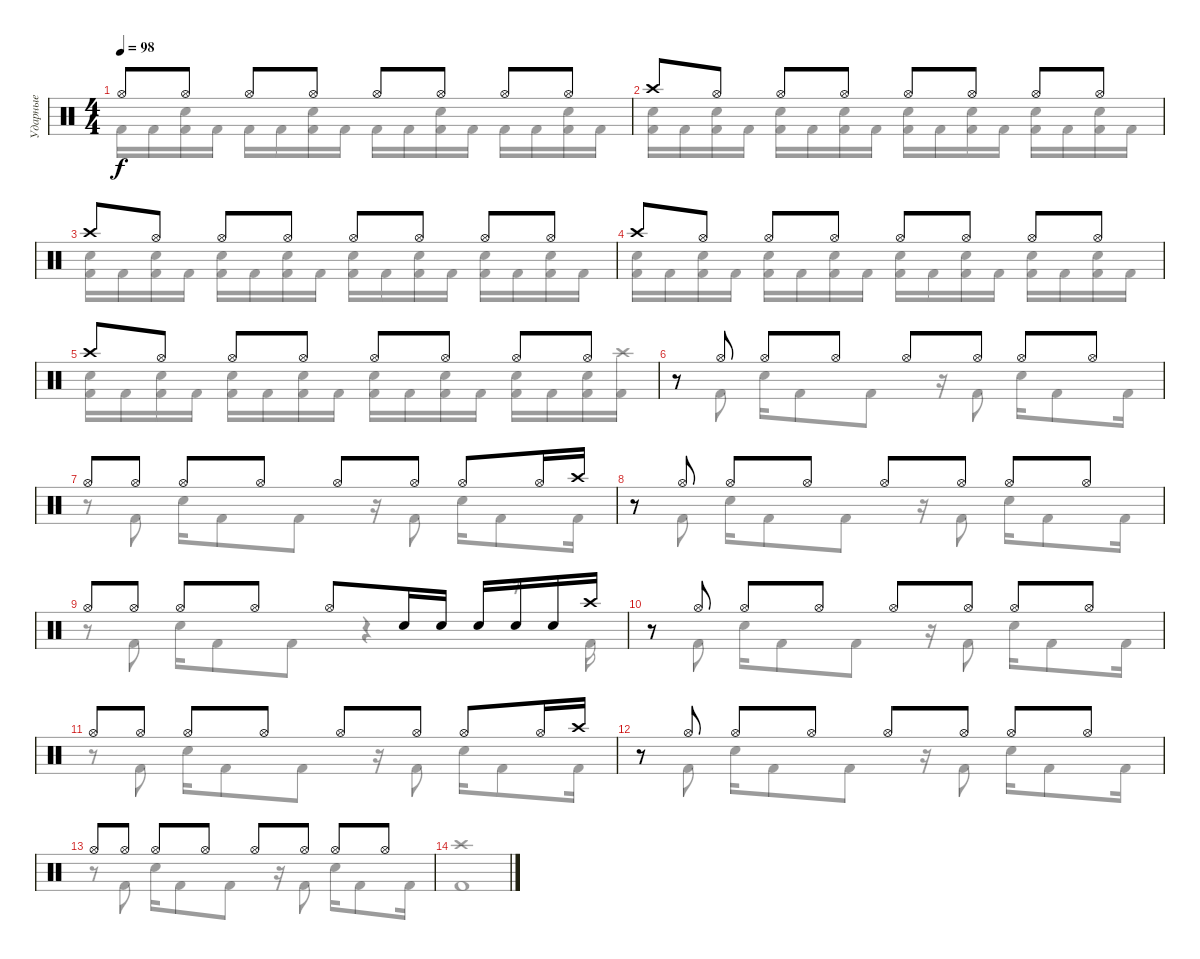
\track ("Ударные" "Ударные") {instrument percussion}
\staff {score}
\articulation defaults
\voice
\ts (4 4)
\tempo 98
\clef neutral
\ks c "Hi-Hat (open)".8{dy f} "Hi-Hat (open)".8 "Hi-Hat (open)".8 "Hi-Hat (open)".8 "Hi-Hat (open)".8 "Hi-Hat (open)".8 "Hi-Hat (open)".8 "Hi-Hat (open)".8
|
"Crash high (hit)".8 "Hi-Hat (open)".8 "Hi-Hat (open)".8 "Hi-Hat (open)".8 "Hi-Hat (open)".8 "Hi-Hat (open)".8 "Hi-Hat (open)".8 "Hi-Hat (open)".8 |
"Crash high (hit)".8 "Hi-Hat (open)".8 "Hi-Hat (open)".8 "Hi-Hat (open)".8 "Hi-Hat (open)".8 "Hi-Hat (open)".8 "Hi-Hat (open)".8 "Hi-Hat (open)".8 |
"Crash high (hit)".8 "Hi-Hat (open)".8 "Hi-Hat (open)".8 "Hi-Hat (open)".8 "Hi-Hat (open)".8 "Hi-Hat (open)".8 "Hi-Hat (open)".8 "Hi-Hat (open)".8 |
"Crash high (hit)".8 "Hi-Hat (open)".8 "Hi-Hat (open)".8 "Hi-Hat (open)".8 "Hi-Hat (open)".8 "Hi-Hat (open)".8 "Hi-Hat (open)".8 "Hi-Hat (open)".8 |
r.8 "Hi-Hat (open)".8 "Hi-Hat (open)".8 "Hi-Hat (open)".8 "Hi-Hat (open)".8 "Hi-Hat (open)".8 "Hi-Hat (open)".8 "Hi-Hat (open)".8 |
"Hi-Hat (open)".8 "Hi-Hat (open)".8 "Hi-Hat (open)".8 "Hi-Hat (open)".8 "Hi-Hat (open)".8 "Hi-Hat (open)".8 "Hi-Hat (open)".8 "Hi-Hat (open)".16 "Crash high (hit)".16 |
r.8 "Hi-Hat (open)".8 "Hi-Hat (open)".8 "Hi-Hat (open)".8 "Hi-Hat (open)".8 "Hi-Hat (open)".8 "Hi-Hat (open)".8 "Hi-Hat (open)".8 |
"Hi-Hat (open)".8 "Hi-Hat (open)".8 "Hi-Hat (open)".8 "Hi-Hat (open)".8 "Hi-Hat (open)".8 "Snare (hit) 2".16 "Snare (hit) 2".16 "Snare (hit) 2".16 "Snare (hit) 2".16 "Snare (hit) 2".16 "Crash high (hit)".16 |
r.8 "Hi-Hat (open)".8 "Hi-Hat (open)".8 "Hi-Hat (open)".8 "Hi-Hat (open)".8 "Hi-Hat (open)".8 "Hi-Hat (open)".8 "Hi-Hat (open)".8 |
"Hi-Hat (open)".8 "Hi-Hat (open)".8 "Hi-Hat (open)".8 "Hi-Hat (open)".8 "Hi-Hat (open)".8 "Hi-Hat (open)".8 "Hi-Hat (open)".8 "Hi-Hat (open)".16 "Crash high (hit)".16 |
r.8 "Hi-Hat (open)".8 "Hi-Hat (open)".8 "Hi-Hat (open)".8 "Hi-Hat (open)".8 "Hi-Hat (open)".8 "Hi-Hat (open)".8 "Hi-Hat (open)".8 |
"Hi-Hat (open)".8 "Hi-Hat (open)".8 "Hi-Hat (open)".8 "Hi-Hat (open)".8 "Hi-Hat (open)".8 "Hi-Hat (open)".8 "Hi-Hat (open)".8 "Hi-Hat (open)".8 |
\voice
\clef neutral
\ottava regular
\simile none
\ks c "Kick (hit) 2".16{dy f} "Kick (hit) 2".16
("Snare (hit) 2" "Kick (hit) 2").16 "Kick (hit) 2".16 "Kick (hit) 2".16 "Kick (hit) 2".16 ("Snare (hit) 2" "Kick (hit) 2").16 "Kick (hit) 2".16 "Kick (hit) 2".16 "Kick (hit) 2".16 ("Snare (hit) 2" "Kick (hit) 2").16 "Kick (hit) 2".16 "Kick (hit) 2".16 "Kick (hit) 2".16 ("Snare (hit) 2" "Kick (hit) 2").16 "Kick (hit) 2".16 |
("Snare (hit) 2" "Kick (hit) 2").16 "Kick (hit) 2".16 ("Snare (hit) 2" "Kick (hit) 2").16 "Kick (hit) 2".16 ("Snare (hit) 2" "Kick (hit) 2").16 "Kick (hit) 2".16 ("Snare (hit) 2" "Kick (hit) 2").16 "Kick (hit) 2".16 ("Snare (hit) 2" "Kick (hit) 2").16 "Kick (hit) 2".16 ("Snare (hit) 2" "Kick (hit) 2").16 "Kick (hit) 2".16 ("Snare (hit) 2" "Kick (hit) 2").16 "Kick (hit) 2".16 ("Snare (hit) 2" "Kick (hit) 2").16 "Kick (hit) 2".16 |
("Snare (hit) 2" "Kick (hit) 2").16 "Kick (hit) 2".16 ("Snare (hit) 2" "Kick (hit) 2").16 "Kick (hit) 2".16 ("Snare (hit) 2" "Kick (hit) 2").16 "Kick (hit) 2".16 ("Snare (hit) 2" "Kick (hit) 2").16 "Kick (hit) 2".16 ("Snare (hit) 2" "Kick (hit) 2").16 "Kick (hit) 2".16 ("Snare (hit) 2" "Kick (hit) 2").16 "Kick (hit) 2".16 ("Snare (hit) 2" "Kick (hit) 2").16 "Kick (hit) 2".16 ("Snare (hit) 2" "Kick (hit) 2").16 "Kick (hit) 2".16 |
("Snare (hit) 2" "Kick (hit) 2").16 "Kick (hit) 2".16 ("Snare (hit) 2" "Kick (hit) 2").16 "Kick (hit) 2".16 ("Snare (hit) 2" "Kick (hit) 2").16 "Kick (hit) 2".16 ("Snare (hit) 2" "Kick (hit) 2").16 "Kick (hit) 2".16 ("Snare (hit) 2" "Kick (hit) 2").16 "Kick (hit) 2".16 ("Snare (hit) 2" "Kick (hit) 2").16 "Kick (hit) 2".16 ("Snare (hit) 2" "Kick (hit) 2").16 "Kick (hit) 2".16 ("Snare (hit) 2" "Kick (hit) 2").16 "Kick (hit) 2".16 |
("Snare (hit) 2" "Kick (hit) 2").16 "Kick (hit) 2".16 ("Snare (hit) 2" "Kick (hit) 2").16 "Kick (hit) 2".16 ("Snare (hit) 2" "Kick (hit) 2").16 "Kick (hit) 2".16 ("Snare (hit) 2" "Kick (hit) 2").16 "Kick (hit) 2".16 ("Snare (hit) 2" "Kick (hit) 2").16 "Kick (hit) 2".16 ("Snare (hit) 2" "Kick (hit) 2").16 "Kick (hit) 2".16 ("Snare (hit) 2" "Kick (hit) 2").16 "Kick (hit) 2".16 ("Snare (hit) 2" "Kick (hit) 2").16 ("Crash high (hit)" "Kick (hit) 2").16 |
r.8 "Kick (hit) 2".8 "Snare (hit) 2".16 "Kick (hit) 2".8 "Kick (hit) 2".8 r.16 "Kick (hit) 2".8 "Snare (hit) 2".16 "Kick (hit) 2".8 "Kick (hit) 2".16 |
r.8 "Kick (hit) 2".8 "Snare (hit) 2".16 "Kick (hit) 2".8 "Kick (hit) 2".8 r.16 "Kick (hit) 2".8 "Snare (hit) 2".16 "Kick (hit) 2".8 "Kick (hit) 2".16 |
r.8 "Kick (hit) 2".8 "Snare (hit) 2".16 "Kick (hit) 2".8 "Kick (hit) 2".8 r.16 "Kick (hit) 2".8 "Snare (hit) 2".16 "Kick (hit) 2".8 "Kick (hit) 2".16 |
r.8 "Kick (hit) 2".8 "Snare (hit) 2".16 "Kick (hit) 2".8 "Kick (hit) 2".8 r.4 r.8 "Kick (hit) 2".16 |
r.8 "Kick (hit) 2".8 "Snare (hit) 2".16 "Kick (hit) 2".8 "Kick (hit) 2".8 r.16 "Kick (hit) 2".8 "Snare (hit) 2".16 "Kick (hit) 2".8 "Kick (hit) 2".16 |
r.8 "Kick (hit) 2".8 "Snare (hit) 2".16 "Kick (hit) 2".8 "Kick (hit) 2".8 r.16 "Kick (hit) 2".8 "Snare (hit) 2".16 "Kick (hit) 2".8 "Kick (hit) 2".16 |
r.8 "Kick (hit) 2".8 "Snare (hit) 2".16 "Kick (hit) 2".8 "Kick (hit) 2".8 r.16 "Kick (hit) 2".8 "Snare (hit) 2".16 "Kick (hit) 2".8 "Kick (hit) 2".16 |
r.8 "Kick (hit) 2".8 "Snare (hit) 2".16 "Kick (hit) 2".8 "Kick (hit) 2".8 r.16 "Kick (hit) 2".8 "Snare (hit) 2".16 "Kick (hit) 2".8 "Kick (hit) 2".16 |
("Crash high (hit)" "Kick (hit) 2").1
